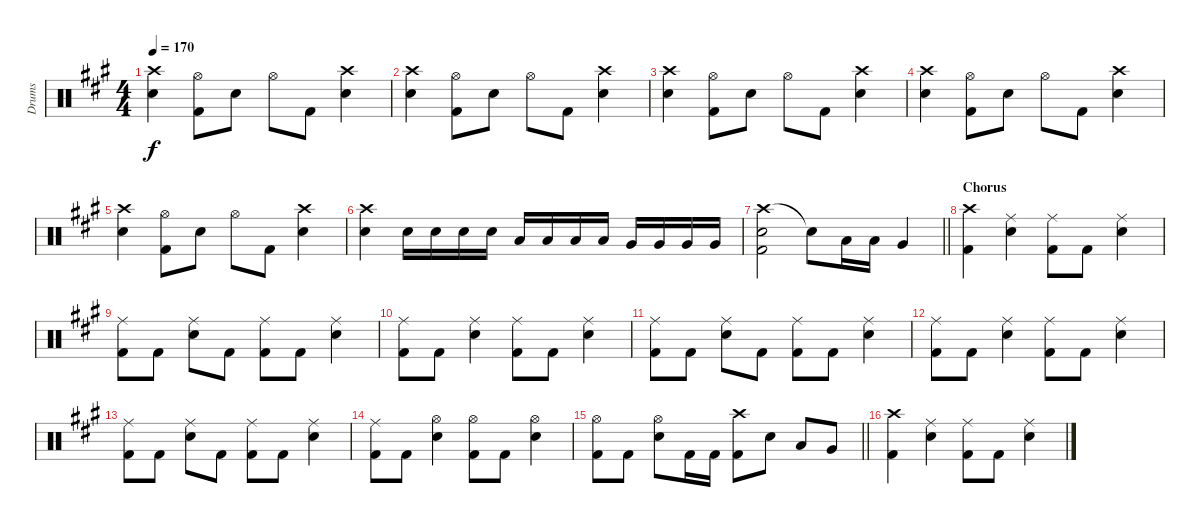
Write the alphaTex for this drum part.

\track ("Drums" "Drums") {instrument percussion}
\staff {score}
\articulation defaults
\ts (4 4)
\tempo 170
\clef neutral
\ks f#minor
("Crash high (hit)" "Snare (hit) 2").4{dy f} ("Hi-Hat (open)" "Kick (hit) 2").8 "Snare (hit) 2".8 "Hi-Hat (open)".8 "Kick (hit) 2".8 ("Crash high (hit)" "Snare (hit) 2").4 |
("Crash high (hit)" "Snare (hit) 2").4 ("Hi-Hat (open)" "Kick (hit) 2").8 "Snare (hit) 2".8 "Hi-Hat (open)".8 "Kick (hit) 2".8 ("Crash high (hit)" "Snare (hit) 2").4 |
("Crash high (hit)" "Snare (hit) 2").4 ("Hi-Hat (open)" "Kick (hit) 2").8 "Snare (hit) 2".8 "Hi-Hat (open)".8 "Kick (hit) 2".8 ("Crash high (hit)" "Snare (hit) 2").4 |
("Crash high (hit)" "Snare (hit) 2").4 ("Hi-Hat (open)" "Kick (hit) 2").8 "Snare (hit) 2".8 "Hi-Hat (open)".8 "Kick (hit) 2".8 ("Crash high (hit)" "Snare (hit) 2").4 |
("Crash high (hit)" "Snare (hit) 2").4 ("Hi-Hat (open)" "Kick (hit) 2").8 "Snare (hit) 2".8 "Hi-Hat (open)".8 "Kick (hit) 2".8 ("Crash high (hit)" "Snare (hit) 2").4 |
("Crash high (hit)" "Snare (hit) 2").4 "Snare (hit) 2".16 "Snare (hit) 2".16 "Snare (hit) 2".16 "Snare (hit) 2".16 "Low Tom (hit)".16 "Low Tom (hit)".16 "Low Tom (hit)".16 "Low Tom (hit)".16 "Very Low Tom (hit)".16 "Very Low Tom (hit)".16 "Very Low Tom (hit)".16 "Very Low Tom (hit)".16 |
\barLineRight lightlight
("Crash high (hit)" "Snare (hit) 2" "Kick (hit) 2").2 "Snare (hit)"{t}.8 "Low Tom (hit)".16 "Low Tom (hit)".16 "Very Low Tom (hit)".4 |
\section ("" "Chorus")
("Crash high (hit)" "Kick (hit) 2").4 ("Ride (middle)" "Snare (hit) 2").4 ("Ride (middle)" "Kick (hit) 2").8 "Kick (hit) 2".8 ("Ride (middle)" "Snare (hit) 2").4 |
("Ride (middle)" "Kick (hit) 2").8 "Kick (hit) 2".8 ("Ride (middle)" "Snare (hit) 2").8 "Kick (hit) 2".8 ("Ride (middle)" "Kick (hit) 2").8 "Kick (hit) 2".8 ("Ride (middle)" "Snare (hit) 2").4 |
("Ride (middle)" "Kick (hit) 2").8 "Kick (hit) 2".8 ("Ride (middle)" "Snare (hit) 2").4 ("Ride (middle)" "Kick (hit) 2").8 "Kick (hit) 2".8 ("Ride (middle)" "Snare (hit) 2").4 |
("Ride (middle)" "Kick (hit) 2").8 "Kick (hit) 2".8 ("Ride (middle)" "Snare (hit) 2").8 "Kick (hit) 2".8 ("Ride (middle)" "Kick (hit) 2").8 "Kick (hit) 2".8 ("Ride (middle)" "Snare (hit) 2").4 |
("Ride (middle)" "Kick (hit) 2").8 "Kick (hit) 2".8 ("Ride (middle)" "Snare (hit) 2").4 ("Ride (middle)" "Kick (hit) 2").8 "Kick (hit) 2".8 ("Ride (middle)" "Snare (hit) 2").4 |
("Ride (middle)" "Kick (hit) 2").8 "Kick (hit) 2".8 ("Ride (middle)" "Snare (hit) 2").8 "Kick (hit) 2".8 ("Ride (middle)" "Kick (hit) 2").8 "Kick (hit) 2".8 ("Ride (middle)" "Snare (hit) 2").4 |
("Ride (middle)" "Kick (hit) 2").8 "Kick (hit) 2".8 ("Hi-Hat (open)" "Snare (hit) 2").4 ("Hi-Hat (open)" "Kick (hit) 2").8 "Kick (hit) 2".8 ("Hi-Hat (open)" "Snare (hit) 2").4 |
\barLineRight lightlight
("Hi-Hat (open)" "Kick (hit) 2").8 "Kick (hit) 2".8 ("Hi-Hat (open)" "Snare (hit) 2").8 "Kick (hit) 2".16 "Kick (hit) 2".16 ("Crash high (hit)" "Kick (hit) 2").8 "Snare (hit) 2".8 "Low Tom (hit)".8 "Very Low Tom (hit)".8 |
("Crash high (hit)" "Kick (hit) 2").4 ("Ride (middle)" "Snare (hit) 2").4 ("Ride (middle)" "Kick (hit) 2").8 "Kick (hit) 2".8 ("Ride (middle)" "Snare (hit) 2").4
